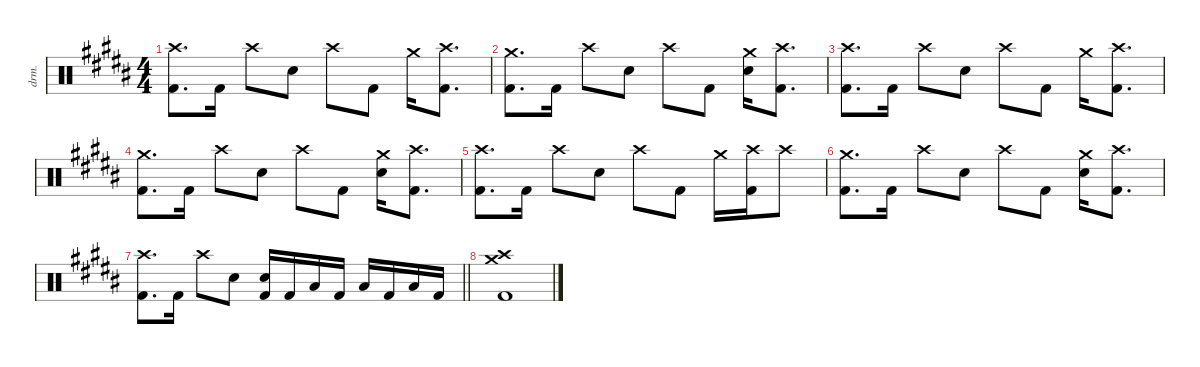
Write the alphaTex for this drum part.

\defaultSystemsLayout 4
\hideDynamics
\bracketExtendMode nobrackets
\otherSystemsTrackNameOrientation horizontal
\track ("Drums" "drm.") {defaultSystemsLayout 4 instrument percussion}
\staff {score}
\articulation defaults
\ts (4 4)
\tempo (68 hide)
\clef neutral
\ks b
("Crash high (hit)"{acc forcenatural} "Kick (hit) 2"{acc forcenatural}).8{d dy f beam Down} "Kick (hit) 2"{acc forcenatural}.16{beam Down} "Crash high (hit)"{acc forcenatural}.8{beam Down} "Snare (hit) 2"{acc forcenatural}.8{beam Down} "Crash high (hit)"{acc forcenatural}.8{beam Down} "Kick (hit) 2"{acc forcenatural}.8{beam Down} "Crash medium (hit)"{acc forcenatural}.16{beam Down} ("Crash high (hit)"{acc forcenatural} "Kick (hit) 2"{acc forcenatural}).8{d beam Down} |
("Crash medium (hit)"{acc forcenatural} "Kick (hit) 2"{acc forcenatural}).8{d beam Down} "Kick (hit) 2"{acc forcenatural}.16{beam Down} "Crash high (hit)"{acc forcenatural}.8{beam Down} "Snare (hit) 2"{acc forcenatural}.8{beam Down} "Crash high (hit)"{acc forcenatural}.8{beam Down} "Kick (hit) 2"{acc forcenatural}.8{beam Down} ("Crash medium (hit)"{acc forcenatural} "Snare (hit) 2"{acc forcenatural}).16{beam Down} ("Crash high (hit)"{acc forcenatural} "Kick (hit) 2"{acc forcenatural}).8{d beam Down} |
("Crash high (hit)"{acc forcenatural} "Kick (hit) 2"{acc forcenatural}).8{d beam Down} "Kick (hit) 2"{acc forcenatural}.16{beam Down} "Crash high (hit)"{acc forcenatural}.8{beam Down} "Snare (hit) 2"{acc forcenatural}.8{beam Down} "Crash high (hit)"{acc forcenatural}.8{beam Down} "Kick (hit) 2"{acc forcenatural}.8{beam Down} "Crash medium (hit)"{acc forcenatural}.16{beam Down} ("Crash high (hit)"{acc forcenatural} "Kick (hit) 2"{acc forcenatural}).8{d beam Down} |
("Crash medium (hit)"{acc forcenatural} "Kick (hit) 2"{acc forcenatural}).8{d beam Down} "Kick (hit) 2"{acc forcenatural}.16{beam Down} "Crash high (hit)"{acc forcenatural}.8{beam Down} "Snare (hit) 2"{acc forcenatural}.8{beam Down} "Crash high (hit)"{acc forcenatural}.8{beam Down} "Kick (hit) 2"{acc forcenatural}.8{beam Down} ("Crash medium (hit)"{acc forcenatural} "Snare (hit) 2"{acc forcenatural}).16{beam Down} ("Crash high (hit)"{acc forcenatural} "Kick (hit) 2"{acc forcenatural}).8{d beam Down} |
("Crash high (hit)"{acc forcenatural} "Kick (hit) 2"{acc forcenatural}).8{d beam Down} "Kick (hit) 2"{acc forcenatural}.16{beam Down} "Crash high (hit)"{acc forcenatural}.8{beam Down} "Snare (hit) 2"{acc forcenatural}.8{beam Down} "Crash high (hit)"{acc forcenatural}.8{beam Down} "Kick (hit) 2"{acc forcenatural}.8{beam Down} "Crash medium (hit)"{acc forcenatural}.16{beam Down} ("Crash high (hit)"{acc forcenatural} "Kick (hit) 2"{acc forcenatural}).16{beam Down} "Crash high (hit)"{acc forcenatural}.8{beam Down} |
("Crash medium (hit)"{acc forcenatural} "Kick (hit) 2"{acc forcenatural}).8{d beam Down} "Kick (hit) 2"{acc forcenatural}.16{beam Down} "Crash high (hit)"{acc forcenatural}.8{beam Down} "Snare (hit) 2"{acc forcenatural}.8{beam Down} "Crash high (hit)"{acc forcenatural}.8{beam Down} "Kick (hit) 2"{acc forcenatural}.8{beam Down} ("Crash medium (hit)"{acc forcenatural} "Snare (hit) 2"{acc forcenatural}).16{beam Down} ("Crash high (hit)"{acc forcenatural} "Kick (hit) 2"{acc forcenatural}).8{d beam Down} |
\barLineRight lightlight
("Crash high (hit)"{acc forcenatural} "Kick (hit) 2"{acc forcenatural}).8{d beam Down} "Kick (hit) 2"{acc forcenatural}.16{beam Down} "Crash high (hit)"{acc forcenatural}.8{beam Down} "Snare (hit) 2"{acc forcenatural}.8{beam Down} ("Snare (hit) 2"{acc forcenatural} "Kick (hit) 2"{acc forcenatural}).16{beam Up} "Kick (hit) 2"{acc forcenatural}.16{beam Up} "Low Tom (hit)"{acc forcenatural}.16{beam Up} "Kick (hit) 2"{acc forcenatural}.16{beam Up} "Low Tom (hit)"{acc forcenatural}.16{beam Up} "Kick (hit) 2"{acc forcenatural}.16{beam Up} "Low Tom (hit)"{acc forcenatural}.16{beam Up} "Kick (hit) 2"{acc forcenatural}.16{beam Up} |
("Crash medium (hit)"{acc forcenatural} "Crash high (hit)"{acc forcenatural} "Kick (hit) 2"{acc forcenatural}).1{beam Down}
